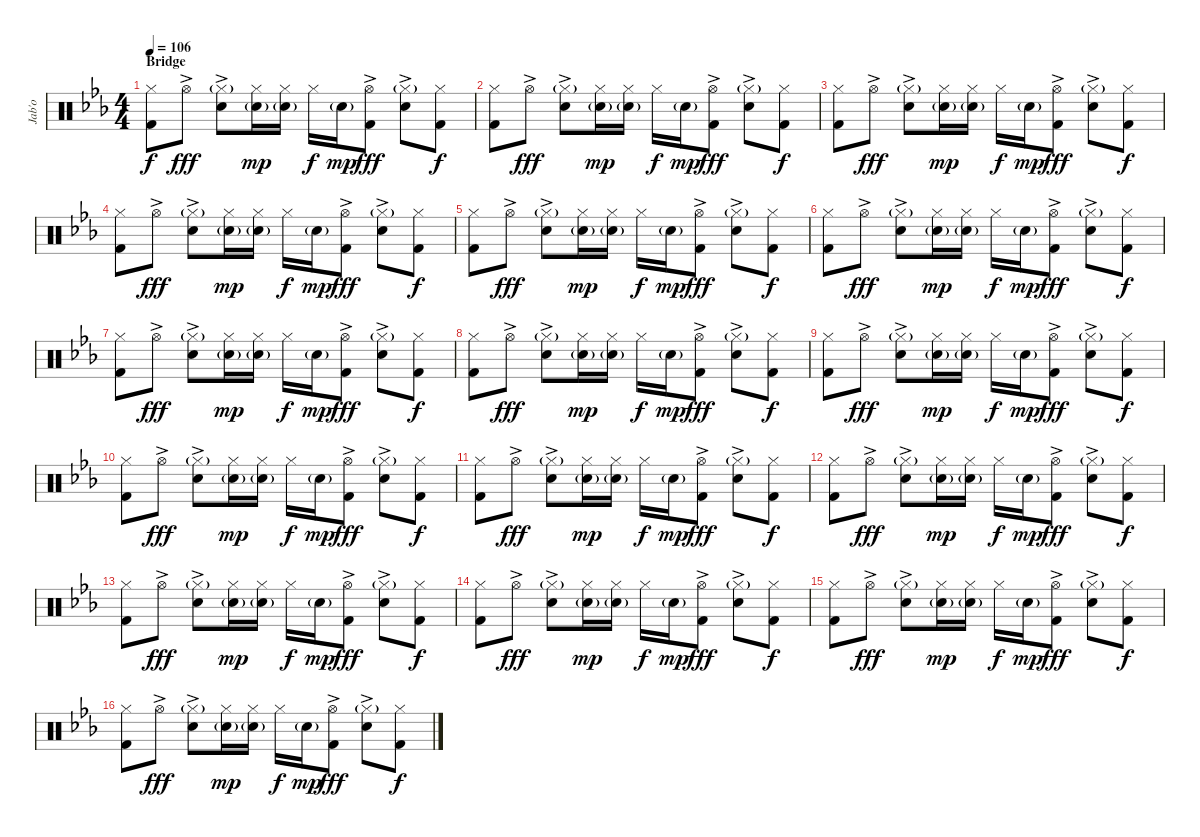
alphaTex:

\track ("Jab'o" "Jab'o") {instrument percussion}
\staff {score}
\articulation defaults
\ts (4 4)
\section ("" "Bridge")
\tempo 106
\clef neutral
\ks eb
("Hi-Hat (closed)" "Kick (hit) 2").8{dy f} "Hi-Hat (open)"{ac}.8{dy fff} ("Hi-Hat (closed)"{g} "Snare (hit) 2"{ac}).8 ("Hi-Hat (closed)" "Snare (hit) 2"{g}).16{dy mp} ("Hi-Hat (closed)" "Snare (hit) 2"{g}).16 "Hi-Hat (closed)".16{dy f} "Snare (hit) 2"{g}.16{dy mp} ("Hi-Hat (open)"{ac} "Kick (hit) 2"{ac}).8{dy fff} ("Hi-Hat (closed)"{g} "Snare (hit) 2"{ac}).8 ("Hi-Hat (closed)" "Kick (hit) 2").8{dy f} |
("Hi-Hat (closed)" "Kick (hit) 2").8 "Hi-Hat (open)"{ac}.8{dy fff} ("Hi-Hat (closed)"{g} "Snare (hit) 2"{ac}).8 ("Hi-Hat (closed)" "Snare (hit) 2"{g}).16{dy mp} ("Hi-Hat (closed)" "Snare (hit) 2"{g}).16 "Hi-Hat (closed)".16{dy f} "Snare (hit) 2"{g}.16{dy mp} ("Hi-Hat (open)"{ac} "Kick (hit) 2"{ac}).8{dy fff} ("Hi-Hat (closed)"{g} "Snare (hit) 2"{ac}).8 ("Hi-Hat (closed)" "Kick (hit) 2").8{dy f} |
("Hi-Hat (closed)" "Kick (hit) 2").8 "Hi-Hat (open)"{ac}.8{dy fff} ("Hi-Hat (closed)"{g} "Snare (hit) 2"{ac}).8 ("Hi-Hat (closed)" "Snare (hit) 2"{g}).16{dy mp} ("Hi-Hat (closed)" "Snare (hit) 2"{g}).16 "Hi-Hat (closed)".16{dy f} "Snare (hit) 2"{g}.16{dy mp} ("Hi-Hat (open)"{ac} "Kick (hit) 2"{ac}).8{dy fff} ("Hi-Hat (closed)"{g} "Snare (hit) 2"{ac}).8 ("Hi-Hat (closed)" "Kick (hit) 2").8{dy f} |
("Hi-Hat (closed)" "Kick (hit) 2").8 "Hi-Hat (open)"{ac}.8{dy fff} ("Hi-Hat (closed)"{g} "Snare (hit) 2"{ac}).8 ("Hi-Hat (closed)" "Snare (hit) 2"{g}).16{dy mp} ("Hi-Hat (closed)" "Snare (hit) 2"{g}).16 "Hi-Hat (closed)".16{dy f} "Snare (hit) 2"{g}.16{dy mp} ("Hi-Hat (open)"{ac} "Kick (hit) 2"{ac}).8{dy fff} ("Hi-Hat (closed)"{g} "Snare (hit) 2"{ac}).8 ("Hi-Hat (closed)" "Kick (hit) 2").8{dy f} |
("Hi-Hat (closed)" "Kick (hit) 2").8 "Hi-Hat (open)"{ac}.8{dy fff} ("Hi-Hat (closed)"{g} "Snare (hit) 2"{ac}).8 ("Hi-Hat (closed)" "Snare (hit) 2"{g}).16{dy mp} ("Hi-Hat (closed)" "Snare (hit) 2"{g}).16 "Hi-Hat (closed)".16{dy f} "Snare (hit) 2"{g}.16{dy mp} ("Hi-Hat (open)"{ac} "Kick (hit) 2"{ac}).8{dy fff} ("Hi-Hat (closed)"{g} "Snare (hit) 2"{ac}).8 ("Hi-Hat (closed)" "Kick (hit) 2").8{dy f} |
("Hi-Hat (closed)" "Kick (hit) 2").8 "Hi-Hat (open)"{ac}.8{dy fff} ("Hi-Hat (closed)"{g} "Snare (hit) 2"{ac}).8 ("Hi-Hat (closed)" "Snare (hit) 2"{g}).16{dy mp} ("Hi-Hat (closed)" "Snare (hit) 2"{g}).16 "Hi-Hat (closed)".16{dy f} "Snare (hit) 2"{g}.16{dy mp} ("Hi-Hat (open)"{ac} "Kick (hit) 2"{ac}).8{dy fff} ("Hi-Hat (closed)"{g} "Snare (hit) 2"{ac}).8 ("Hi-Hat (closed)" "Kick (hit) 2").8{dy f} |
("Hi-Hat (closed)" "Kick (hit) 2").8 "Hi-Hat (open)"{ac}.8{dy fff} ("Hi-Hat (closed)"{g} "Snare (hit) 2"{ac}).8 ("Hi-Hat (closed)" "Snare (hit) 2"{g}).16{dy mp} ("Hi-Hat (closed)" "Snare (hit) 2"{g}).16 "Hi-Hat (closed)".16{dy f} "Snare (hit) 2"{g}.16{dy mp} ("Hi-Hat (open)"{ac} "Kick (hit) 2"{ac}).8{dy fff} ("Hi-Hat (closed)"{g} "Snare (hit) 2"{ac}).8 ("Hi-Hat (closed)" "Kick (hit) 2").8{dy f} |
("Hi-Hat (closed)" "Kick (hit) 2").8 "Hi-Hat (open)"{ac}.8{dy fff} ("Hi-Hat (closed)"{g} "Snare (hit) 2"{ac}).8 ("Hi-Hat (closed)" "Snare (hit) 2"{g}).16{dy mp} ("Hi-Hat (closed)" "Snare (hit) 2"{g}).16 "Hi-Hat (closed)".16{dy f} "Snare (hit) 2"{g}.16{dy mp} ("Hi-Hat (open)"{ac} "Kick (hit) 2"{ac}).8{dy fff} ("Hi-Hat (closed)"{g} "Snare (hit) 2"{ac}).8 ("Hi-Hat (closed)" "Kick (hit) 2").8{dy f} |
("Hi-Hat (closed)" "Kick (hit) 2").8 "Hi-Hat (open)"{ac}.8{dy fff} ("Hi-Hat (closed)"{g} "Snare (hit) 2"{ac}).8 ("Hi-Hat (closed)" "Snare (hit) 2"{g}).16{dy mp} ("Hi-Hat (closed)" "Snare (hit) 2"{g}).16 "Hi-Hat (closed)".16{dy f} "Snare (hit) 2"{g}.16{dy mp} ("Hi-Hat (open)"{ac} "Kick (hit) 2"{ac}).8{dy fff} ("Hi-Hat (closed)"{g} "Snare (hit) 2"{ac}).8 ("Hi-Hat (closed)" "Kick (hit) 2").8{dy f} |
("Hi-Hat (closed)" "Kick (hit) 2").8 "Hi-Hat (open)"{ac}.8{dy fff} ("Hi-Hat (closed)"{g} "Snare (hit) 2"{ac}).8 ("Hi-Hat (closed)" "Snare (hit) 2"{g}).16{dy mp} ("Hi-Hat (closed)" "Snare (hit) 2"{g}).16 "Hi-Hat (closed)".16{dy f} "Snare (hit) 2"{g}.16{dy mp} ("Hi-Hat (open)"{ac} "Kick (hit) 2"{ac}).8{dy fff} ("Hi-Hat (closed)"{g} "Snare (hit) 2"{ac}).8 ("Hi-Hat (closed)" "Kick (hit) 2").8{dy f} |
("Hi-Hat (closed)" "Kick (hit) 2").8 "Hi-Hat (open)"{ac}.8{dy fff} ("Hi-Hat (closed)"{g} "Snare (hit) 2"{ac}).8 ("Hi-Hat (closed)" "Snare (hit) 2"{g}).16{dy mp} ("Hi-Hat (closed)" "Snare (hit) 2"{g}).16 "Hi-Hat (closed)".16{dy f} "Snare (hit) 2"{g}.16{dy mp} ("Hi-Hat (open)"{ac} "Kick (hit) 2"{ac}).8{dy fff} ("Hi-Hat (closed)"{g} "Snare (hit) 2"{ac}).8 ("Hi-Hat (closed)" "Kick (hit) 2").8{dy f} |
("Hi-Hat (closed)" "Kick (hit) 2").8 "Hi-Hat (open)"{ac}.8{dy fff} ("Hi-Hat (closed)"{g} "Snare (hit) 2"{ac}).8 ("Hi-Hat (closed)" "Snare (hit) 2"{g}).16{dy mp} ("Hi-Hat (closed)" "Snare (hit) 2"{g}).16 "Hi-Hat (closed)".16{dy f} "Snare (hit) 2"{g}.16{dy mp} ("Hi-Hat (open)"{ac} "Kick (hit) 2"{ac}).8{dy fff} ("Hi-Hat (closed)"{g} "Snare (hit) 2"{ac}).8 ("Hi-Hat (closed)" "Kick (hit) 2").8{dy f} |
("Hi-Hat (closed)" "Kick (hit) 2").8 "Hi-Hat (open)"{ac}.8{dy fff} ("Hi-Hat (closed)"{g} "Snare (hit) 2"{ac}).8 ("Hi-Hat (closed)" "Snare (hit) 2"{g}).16{dy mp} ("Hi-Hat (closed)" "Snare (hit) 2"{g}).16 "Hi-Hat (closed)".16{dy f} "Snare (hit) 2"{g}.16{dy mp} ("Hi-Hat (open)"{ac} "Kick (hit) 2"{ac}).8{dy fff} ("Hi-Hat (closed)"{g} "Snare (hit) 2"{ac}).8 ("Hi-Hat (closed)" "Kick (hit) 2").8{dy f} |
("Hi-Hat (closed)" "Kick (hit) 2").8 "Hi-Hat (open)"{ac}.8{dy fff} ("Hi-Hat (closed)"{g} "Snare (hit) 2"{ac}).8 ("Hi-Hat (closed)" "Snare (hit) 2"{g}).16{dy mp} ("Hi-Hat (closed)" "Snare (hit) 2"{g}).16 "Hi-Hat (closed)".16{dy f} "Snare (hit) 2"{g}.16{dy mp} ("Hi-Hat (open)"{ac} "Kick (hit) 2"{ac}).8{dy fff} ("Hi-Hat (closed)"{g} "Snare (hit) 2"{ac}).8 ("Hi-Hat (closed)" "Kick (hit) 2").8{dy f} |
("Hi-Hat (closed)" "Kick (hit) 2").8 "Hi-Hat (open)"{ac}.8{dy fff} ("Hi-Hat (closed)"{g} "Snare (hit) 2"{ac}).8 ("Hi-Hat (closed)" "Snare (hit) 2"{g}).16{dy mp} ("Hi-Hat (closed)" "Snare (hit) 2"{g}).16 "Hi-Hat (closed)".16{dy f} "Snare (hit) 2"{g}.16{dy mp} ("Hi-Hat (open)"{ac} "Kick (hit) 2"{ac}).8{dy fff} ("Hi-Hat (closed)"{g} "Snare (hit) 2"{ac}).8 ("Hi-Hat (closed)" "Kick (hit) 2").8{dy f} |
("Hi-Hat (closed)" "Kick (hit) 2").8 "Hi-Hat (open)"{ac}.8{dy fff} ("Hi-Hat (closed)"{g} "Snare (hit) 2"{ac}).8 ("Hi-Hat (closed)" "Snare (hit) 2"{g}).16{dy mp} ("Hi-Hat (closed)" "Snare (hit) 2"{g}).16 "Hi-Hat (closed)".16{dy f} "Snare (hit) 2"{g}.16{dy mp} ("Hi-Hat (open)"{ac} "Kick (hit) 2"{ac}).8{dy fff} ("Hi-Hat (closed)"{g} "Snare (hit) 2"{ac}).8 ("Hi-Hat (closed)" "Kick (hit) 2").8{dy f}
